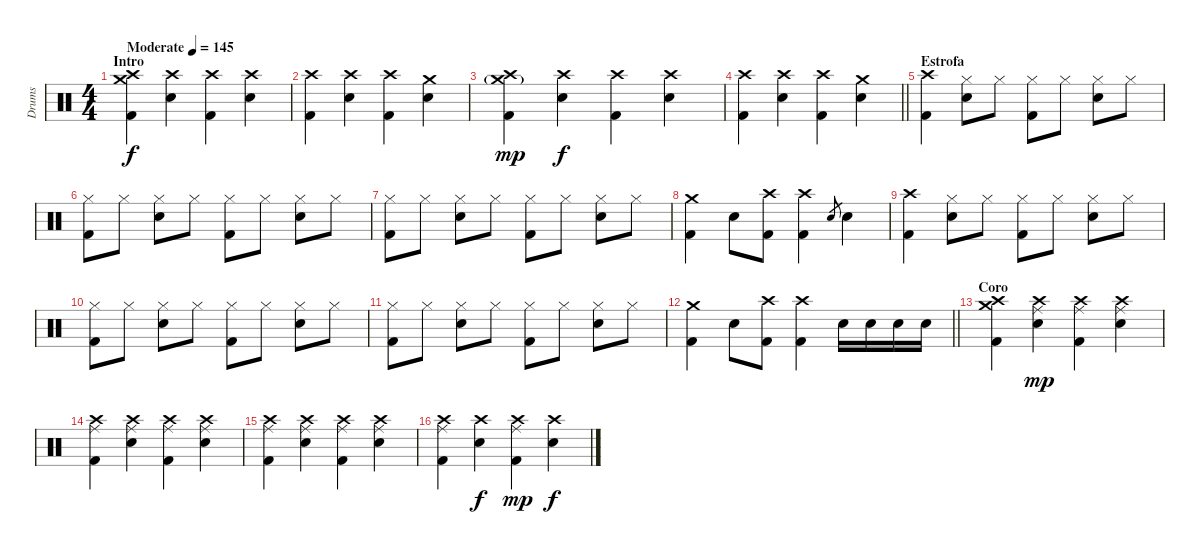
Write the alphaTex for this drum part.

\track ("Drums" "Drums") {instrument percussion}
\staff {score}
\articulation defaults
\ts (4 4)
\section ("" "Intro")
\tempo (145 "Moderate")
\clef neutral
\ks c
("Kick (hit) 2" "Crash medium (hit)" "Crash high (hit)").4{dy f} ("Crash high (hit)" "Electric Snare (hit)").4 ("Crash high (hit)" "Kick (hit) 2").4 ("Crash high (hit)" "Electric Snare (hit)").4 |
("Crash high (hit)" "Kick (hit) 2").4 ("Crash high (hit)" "Electric Snare (hit)").4 ("Crash high (hit)" "Kick (hit) 2").4 ("Crash medium (hit)" "Electric Snare (hit)").4 |
("Kick (hit) 2" "Crash medium (hit)"{g} "Crash high (hit)").4{dy mp} ("Crash high (hit)" "Electric Snare (hit)").4{dy f} ("Crash high (hit)" "Kick (hit) 2").4 ("Crash high (hit)" "Electric Snare (hit)").4 |
\barLineRight lightlight
("Crash high (hit)" "Kick (hit) 2").4 ("Crash high (hit)" "Electric Snare (hit)").4 ("Crash high (hit)" "Kick (hit) 2").4 ("Crash medium (hit)" "Electric Snare (hit)").4 |
\section ("" "Estrofa")
("Crash high (hit)" "Kick (hit) 2").4 ("Electric Snare (hit)" "Hi-Hat (closed)").8 "Hi-Hat (closed)".8 ("Hi-Hat (closed)" "Kick (hit) 2").8 "Hi-Hat (closed)".8 ("Hi-Hat (closed)" "Electric Snare (hit)").8 "Hi-Hat (closed)".8 |
("Hi-Hat (closed)" "Kick (hit) 2").8 "Hi-Hat (closed)".8 ("Hi-Hat (closed)" "Electric Snare (hit)").8 "Hi-Hat (closed)".8 ("Hi-Hat (closed)" "Kick (hit) 2").8 "Hi-Hat (closed)".8 ("Hi-Hat (closed)" "Electric Snare (hit)").8 "Hi-Hat (closed)".8 |
("Hi-Hat (closed)" "Kick (hit) 2").8 "Hi-Hat (closed)".8 ("Hi-Hat (closed)" "Electric Snare (hit)").8 "Hi-Hat (closed)".8 ("Hi-Hat (closed)" "Kick (hit) 2").8 "Hi-Hat (closed)".8 ("Hi-Hat (closed)" "Electric Snare (hit)").8 "Hi-Hat (closed)".8 |
("Kick (hit) 2" "Crash medium (hit)").4 "Electric Snare (hit)".8 ("Crash high (hit)" "Kick (hit) 2").8 ("Crash high (hit)" "Kick (hit) 2").4 "Electric Snare (hit)".8{gr} "Electric Snare (hit)".4 |
("Crash high (hit)" "Kick (hit) 2").4 ("Electric Snare (hit)" "Hi-Hat (closed)").8 "Hi-Hat (closed)".8 ("Hi-Hat (closed)" "Kick (hit) 2").8 "Hi-Hat (closed)".8 ("Hi-Hat (closed)" "Electric Snare (hit)").8 "Hi-Hat (closed)".8 |
("Hi-Hat (closed)" "Kick (hit) 2").8 "Hi-Hat (closed)".8 ("Hi-Hat (closed)" "Electric Snare (hit)").8 "Hi-Hat (closed)".8 ("Hi-Hat (closed)" "Kick (hit) 2").8 "Hi-Hat (closed)".8 ("Hi-Hat (closed)" "Electric Snare (hit)").8 "Hi-Hat (closed)".8 |
("Hi-Hat (closed)" "Kick (hit) 2").8 "Hi-Hat (closed)".8 ("Hi-Hat (closed)" "Electric Snare (hit)").8 "Hi-Hat (closed)".8 ("Hi-Hat (closed)" "Kick (hit) 2").8 "Hi-Hat (closed)".8 ("Hi-Hat (closed)" "Electric Snare (hit)").8 "Hi-Hat (closed)".8 |
\barLineRight lightlight
("Kick (hit) 2" "Crash medium (hit)").4 "Electric Snare (hit)".8 ("Crash high (hit)" "Kick (hit) 2").8 ("Crash high (hit)" "Kick (hit) 2").4 "Electric Snare (hit)".16 "Electric Snare (hit)".16 "Electric Snare (hit)".16 "Electric Snare (hit)".16 |
\section ("" "Coro")
("Kick (hit) 2" "Crash medium (hit)" "Crash high (hit)").4 ("Crash high (hit)" "Electric Snare (hit)" "Ride (middle)").4{dy mp} ("Crash high (hit)" "Kick (hit) 2" "Ride (middle)").4 ("Crash high (hit)" "Electric Snare (hit)" "Ride (middle)").4 |
("Crash high (hit)" "Kick (hit) 2" "Ride (middle)").4 ("Crash high (hit)" "Electric Snare (hit)" "Ride (middle)").4 ("Crash high (hit)" "Kick (hit) 2" "Ride (middle)").4 ("Crash high (hit)" "Electric Snare (hit)" "Ride (middle)").4 |
("Crash high (hit)" "Kick (hit) 2" "Ride (middle)").4 ("Crash high (hit)" "Electric Snare (hit)" "Ride (middle)").4 ("Crash high (hit)" "Kick (hit) 2" "Ride (middle)").4 ("Crash high (hit)" "Electric Snare (hit)" "Ride (middle)").4 |
("Crash high (hit)" "Kick (hit) 2" "Ride (middle)").4 ("Crash high (hit)" "Electric Snare (hit)").4{dy f} ("Crash high (hit)" "Kick (hit) 2" "Ride (middle)").4{dy mp} ("Crash high (hit)" "Electric Snare (hit)").4{dy f}
